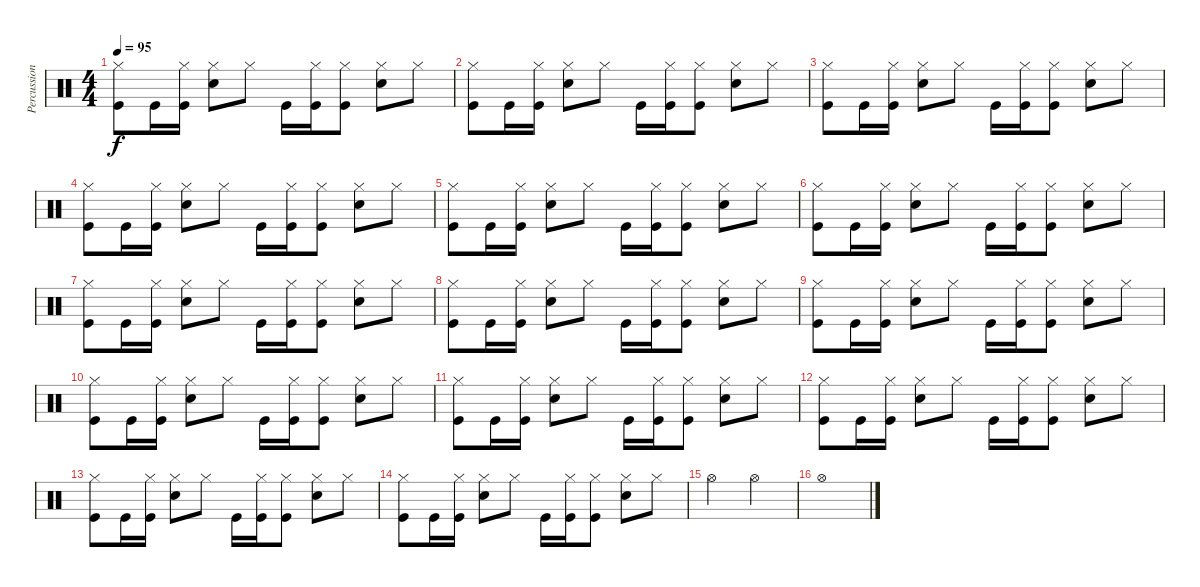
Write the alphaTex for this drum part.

\track ("Percussion" "Percussion") {instrument percussion}
\staff {score}
\articulation defaults
\ts (4 4)
\tempo 95
\clef neutral
\ks c
("Hi-Hat (closed)" "Kick (hit)").8{dy f} "Kick (hit)".16 ("Hi-Hat (closed)" "Kick (hit)").16 ("Hi-Hat (closed)" "Snare (hit) 2").8 "Hi-Hat (closed)".8 "Kick (hit)".16 ("Hi-Hat (closed)" "Kick (hit)").16 ("Hi-Hat (closed)" "Kick (hit)").8 ("Hi-Hat (closed)" "Snare (hit) 2").8 "Hi-Hat (closed)".8 |
("Hi-Hat (closed)" "Kick (hit)").8 "Kick (hit)".16 ("Hi-Hat (closed)" "Kick (hit)").16 ("Hi-Hat (closed)" "Snare (hit) 2").8 "Hi-Hat (closed)".8 "Kick (hit)".16 ("Hi-Hat (closed)" "Kick (hit)").16 ("Hi-Hat (closed)" "Kick (hit)").8 ("Hi-Hat (closed)" "Snare (hit) 2").8 "Hi-Hat (closed)".8 |
("Hi-Hat (closed)" "Kick (hit)").8 "Kick (hit)".16 ("Hi-Hat (closed)" "Kick (hit)").16 ("Hi-Hat (closed)" "Snare (hit) 2").8 "Hi-Hat (closed)".8 "Kick (hit)".16 ("Hi-Hat (closed)" "Kick (hit)").16 ("Hi-Hat (closed)" "Kick (hit)").8 ("Hi-Hat (closed)" "Snare (hit) 2").8 "Hi-Hat (closed)".8 |
("Hi-Hat (closed)" "Kick (hit)").8 "Kick (hit)".16 ("Hi-Hat (closed)" "Kick (hit)").16 ("Hi-Hat (closed)" "Snare (hit) 2").8 "Hi-Hat (closed)".8 "Kick (hit)".16 ("Hi-Hat (closed)" "Kick (hit)").16 ("Hi-Hat (closed)" "Kick (hit)").8 ("Hi-Hat (closed)" "Snare (hit) 2").8 "Hi-Hat (closed)".8 |
("Hi-Hat (closed)" "Kick (hit)").8 "Kick (hit)".16 ("Hi-Hat (closed)" "Kick (hit)").16 ("Hi-Hat (closed)" "Snare (hit) 2").8 "Hi-Hat (closed)".8 "Kick (hit)".16 ("Hi-Hat (closed)" "Kick (hit)").16 ("Hi-Hat (closed)" "Kick (hit)").8 ("Hi-Hat (closed)" "Snare (hit) 2").8 "Hi-Hat (closed)".8 |
("Hi-Hat (closed)" "Kick (hit)").8 "Kick (hit)".16 ("Hi-Hat (closed)" "Kick (hit)").16 ("Hi-Hat (closed)" "Snare (hit) 2").8 "Hi-Hat (closed)".8 "Kick (hit)".16 ("Hi-Hat (closed)" "Kick (hit)").16 ("Hi-Hat (closed)" "Kick (hit)").8 ("Hi-Hat (closed)" "Snare (hit) 2").8 "Hi-Hat (closed)".8 |
("Hi-Hat (closed)" "Kick (hit)").8 "Kick (hit)".16 ("Hi-Hat (closed)" "Kick (hit)").16 ("Hi-Hat (closed)" "Snare (hit) 2").8 "Hi-Hat (closed)".8 "Kick (hit)".16 ("Hi-Hat (closed)" "Kick (hit)").16 ("Hi-Hat (closed)" "Kick (hit)").8 ("Hi-Hat (closed)" "Snare (hit) 2").8 "Hi-Hat (closed)".8 |
("Hi-Hat (closed)" "Kick (hit)").8 "Kick (hit)".16 ("Hi-Hat (closed)" "Kick (hit)").16 ("Hi-Hat (closed)" "Snare (hit) 2").8 "Hi-Hat (closed)".8 "Kick (hit)".16 ("Hi-Hat (closed)" "Kick (hit)").16 ("Hi-Hat (closed)" "Kick (hit)").8 ("Hi-Hat (closed)" "Snare (hit) 2").8 "Hi-Hat (closed)".8 |
("Hi-Hat (closed)" "Kick (hit)").8 "Kick (hit)".16 ("Hi-Hat (closed)" "Kick (hit)").16 ("Hi-Hat (closed)" "Snare (hit) 2").8 "Hi-Hat (closed)".8 "Kick (hit)".16 ("Hi-Hat (closed)" "Kick (hit)").16 ("Hi-Hat (closed)" "Kick (hit)").8 ("Hi-Hat (closed)" "Snare (hit) 2").8 "Hi-Hat (closed)".8 |
("Hi-Hat (closed)" "Kick (hit)").8 "Kick (hit)".16 ("Hi-Hat (closed)" "Kick (hit)").16 ("Hi-Hat (closed)" "Snare (hit) 2").8 "Hi-Hat (closed)".8 "Kick (hit)".16 ("Hi-Hat (closed)" "Kick (hit)").16 ("Hi-Hat (closed)" "Kick (hit)").8 ("Hi-Hat (closed)" "Snare (hit) 2").8 "Hi-Hat (closed)".8 |
("Hi-Hat (closed)" "Kick (hit)").8 "Kick (hit)".16 ("Hi-Hat (closed)" "Kick (hit)").16 ("Hi-Hat (closed)" "Snare (hit) 2").8 "Hi-Hat (closed)".8 "Kick (hit)".16 ("Hi-Hat (closed)" "Kick (hit)").16 ("Hi-Hat (closed)" "Kick (hit)").8 ("Hi-Hat (closed)" "Snare (hit) 2").8 "Hi-Hat (closed)".8 |
("Hi-Hat (closed)" "Kick (hit)").8 "Kick (hit)".16 ("Hi-Hat (closed)" "Kick (hit)").16 ("Hi-Hat (closed)" "Snare (hit) 2").8 "Hi-Hat (closed)".8 "Kick (hit)".16 ("Hi-Hat (closed)" "Kick (hit)").16 ("Hi-Hat (closed)" "Kick (hit)").8 ("Hi-Hat (closed)" "Snare (hit) 2").8 "Hi-Hat (closed)".8 |
("Hi-Hat (closed)" "Kick (hit)").8 "Kick (hit)".16 ("Hi-Hat (closed)" "Kick (hit)").16 ("Hi-Hat (closed)" "Snare (hit) 2").8 "Hi-Hat (closed)".8 "Kick (hit)".16 ("Hi-Hat (closed)" "Kick (hit)").16 ("Hi-Hat (closed)" "Kick (hit)").8 ("Hi-Hat (closed)" "Snare (hit) 2").8 "Hi-Hat (closed)".8 |
("Hi-Hat (closed)" "Kick (hit)").8 "Kick (hit)".16 ("Hi-Hat (closed)" "Kick (hit)").16 ("Hi-Hat (closed)" "Snare (hit) 2").8 "Hi-Hat (closed)".8 "Kick (hit)".16 ("Hi-Hat (closed)" "Kick (hit)").16 ("Hi-Hat (closed)" "Kick (hit)").8 ("Hi-Hat (closed)" "Snare (hit) 2").8 "Hi-Hat (closed)".8 |
"Hi-Hat (open)".2 "Hi-Hat (open)".2 |
"Hi-Hat (open)".1
